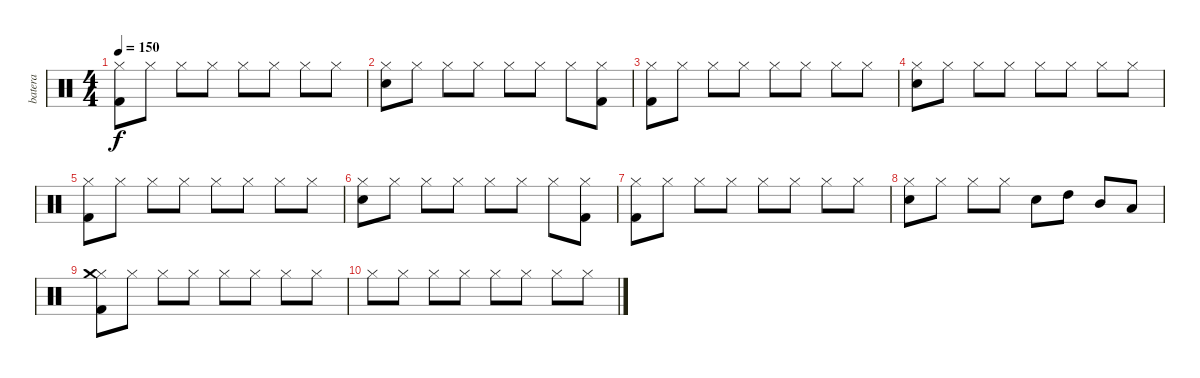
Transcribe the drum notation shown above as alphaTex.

\track ("batera" "batera") {instrument percussion}
\staff {score}
\articulation defaults
\ts (4 4)
\tempo 150
\clef neutral
\ks c
("Hi-Hat (closed)" "Kick (hit) 2").8{dy f} "Hi-Hat (closed)".8 "Hi-Hat (closed)".8 "Hi-Hat (closed)".8 "Hi-Hat (closed)".8 "Hi-Hat (closed)".8 "Hi-Hat (closed)".8 "Hi-Hat (closed)".8 |
("Hi-Hat (closed)" "Snare (hit) 2").8 "Hi-Hat (closed)".8 "Hi-Hat (closed)".8 "Hi-Hat (closed)".8 "Hi-Hat (closed)".8 "Hi-Hat (closed)".8 "Hi-Hat (closed)".8 ("Hi-Hat (closed)" "Kick (hit) 2").8 |
("Hi-Hat (closed)" "Kick (hit) 2").8 "Hi-Hat (closed)".8 "Hi-Hat (closed)".8 "Hi-Hat (closed)".8 "Hi-Hat (closed)".8 "Hi-Hat (closed)".8 "Hi-Hat (closed)".8 "Hi-Hat (closed)".8 |
("Hi-Hat (closed)" "Snare (hit) 2").8 "Hi-Hat (closed)".8 "Hi-Hat (closed)".8 "Hi-Hat (closed)".8 "Hi-Hat (closed)".8 "Hi-Hat (closed)".8 "Hi-Hat (closed)".8 "Hi-Hat (closed)".8 |
("Hi-Hat (closed)" "Kick (hit) 2").8 "Hi-Hat (closed)".8 "Hi-Hat (closed)".8 "Hi-Hat (closed)".8 "Hi-Hat (closed)".8 "Hi-Hat (closed)".8 "Hi-Hat (closed)".8 "Hi-Hat (closed)".8 |
("Hi-Hat (closed)" "Snare (hit) 2").8 "Hi-Hat (closed)".8 "Hi-Hat (closed)".8 "Hi-Hat (closed)".8 "Hi-Hat (closed)".8 "Hi-Hat (closed)".8 "Hi-Hat (closed)".8 ("Hi-Hat (closed)" "Kick (hit) 2").8 |
("Hi-Hat (closed)" "Kick (hit) 2").8 "Hi-Hat (closed)".8 "Hi-Hat (closed)".8 "Hi-Hat (closed)".8 "Hi-Hat (closed)".8 "Hi-Hat (closed)".8 "Hi-Hat (closed)".8 "Hi-Hat (closed)".8 |
("Hi-Hat (closed)" "Snare (hit) 2").8 "Hi-Hat (closed)".8 "Hi-Hat (closed)".8 "Hi-Hat (closed)".8 "Snare (hit) 2".8 "High Tom (hit)".8 "Mid Tom (hit)".8 "Low Tom (hit)".8 |
("Hi-Hat (closed)" "Crash medium (hit)" "Kick (hit) 2").8 "Hi-Hat (closed)".8 "Hi-Hat (closed)".8 "Hi-Hat (closed)".8 "Hi-Hat (closed)".8 "Hi-Hat (closed)".8 "Hi-Hat (closed)".8 "Hi-Hat (closed)".8 |
"Hi-Hat (closed)".8 "Hi-Hat (closed)".8 "Hi-Hat (closed)".8 "Hi-Hat (closed)".8 "Hi-Hat (closed)".8 "Hi-Hat (closed)".8 "Hi-Hat (closed)".8 "Hi-Hat (closed)".8
